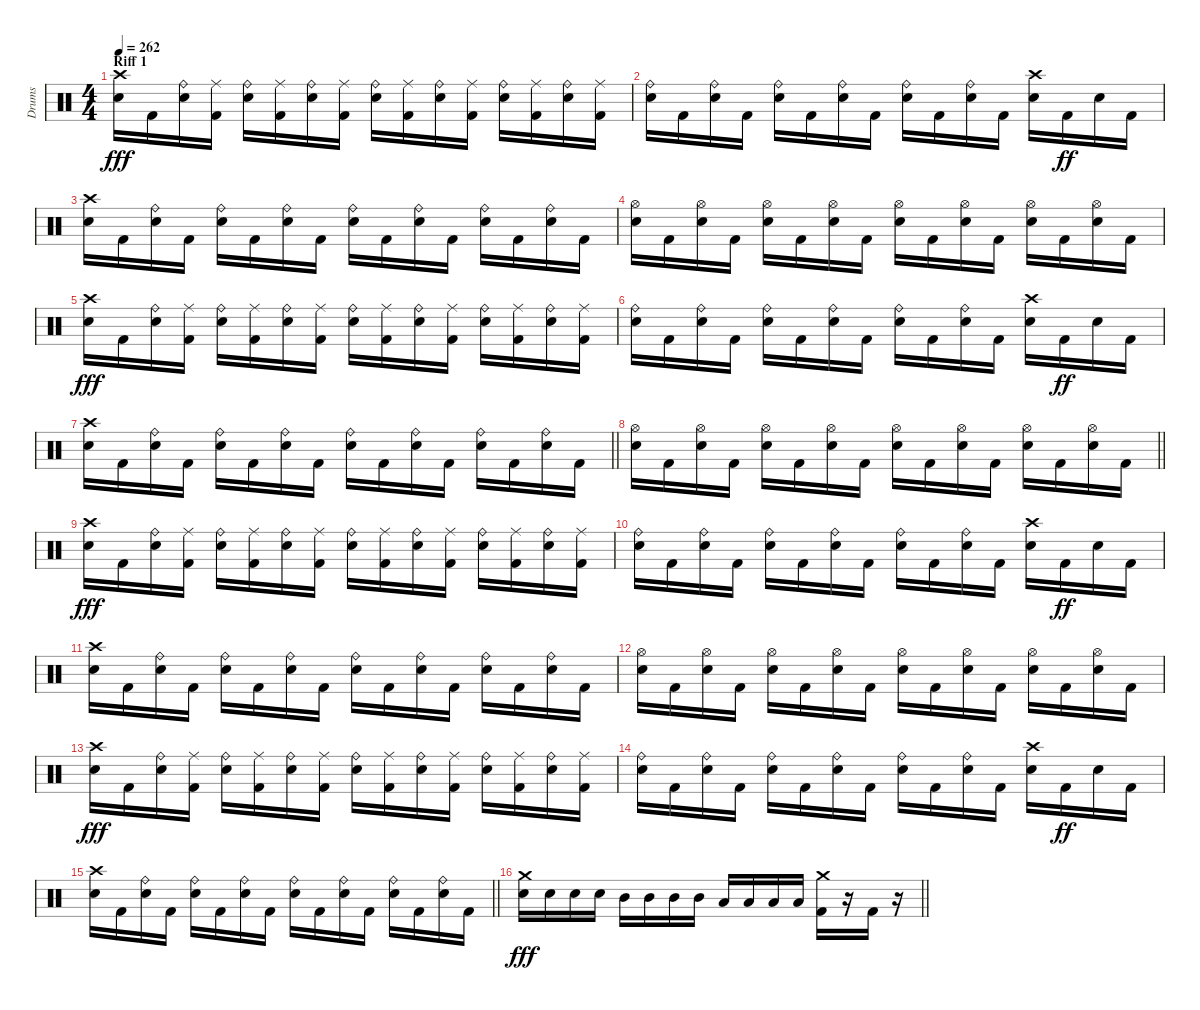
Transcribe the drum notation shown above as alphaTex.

\track ("Drums" "Drums") {instrument percussion}
\staff {score}
\articulation defaults
\ts (4 4)
\section ("" "Riff 1")
\tempo 262
\clef neutral
\ks c
("Crash high (hit)" "Snare (hit) 2").16{dy fff} "Kick (hit) 2".16 ("Snare (hit) 2" "Ride (bell)").16 ("Kick (hit) 2" "Ride (middle)").16 ("Snare (hit) 2" "Ride (bell)").16 ("Kick (hit) 2" "Ride (middle)").16 ("Snare (hit) 2" "Ride (bell)").16 ("Kick (hit) 2" "Ride (middle)").16 ("Snare (hit) 2" "Ride (bell)").16 ("Kick (hit) 2" "Ride (middle)").16 ("Snare (hit) 2" "Ride (bell)").16 ("Kick (hit) 2" "Ride (middle)").16 ("Snare (hit) 2" "Ride (bell)").16 ("Kick (hit) 2" "Ride (middle)").16 ("Snare (hit) 2" "Ride (bell)").16 ("Kick (hit) 2" "Ride (middle)").16 |
("Snare (hit) 2" "Ride (bell)").16 "Kick (hit) 2".16 ("Snare (hit) 2" "Ride (bell)").16 "Kick (hit) 2".16 ("Snare (hit) 2" "Ride (bell)").16 "Kick (hit) 2".16 ("Snare (hit) 2" "Ride (bell)").16 "Kick (hit) 2".16 ("Snare (hit) 2" "Ride (bell)").16 "Kick (hit) 2".16 ("Snare (hit) 2" "Ride (bell)").16 "Kick (hit) 2".16 ("Crash high (hit)" "Snare (hit) 2").16 "Kick (hit) 2".16{dy ff} "Snare (hit) 2".16 "Kick (hit) 2".16 |
("Crash high (hit)" "Snare (hit) 2").16 "Kick (hit) 2".16 ("Snare (hit) 2" "Ride (bell)").16 "Kick (hit) 2".16 ("Snare (hit) 2" "Ride (bell)").16 "Kick (hit) 2".16 ("Snare (hit) 2" "Ride (bell)").16 "Kick (hit) 2".16 ("Snare (hit) 2" "Ride (bell)").16 "Kick (hit) 2".16 ("Snare (hit) 2" "Ride (bell)").16 "Kick (hit) 2".16 ("Snare (hit) 2" "Ride (bell)").16 "Kick (hit) 2".16 ("Snare (hit) 2" "Ride (bell)").16 "Kick (hit) 2".16 |
("Hi-Hat (open)" "Snare (hit) 2").16 "Kick (hit) 2".16 ("Hi-Hat (open)" "Snare (hit) 2").16 "Kick (hit) 2".16 ("Hi-Hat (open)" "Snare (hit) 2").16 "Kick (hit) 2".16 ("Hi-Hat (open)" "Snare (hit) 2").16 "Kick (hit) 2".16 ("Hi-Hat (open)" "Snare (hit) 2").16 "Kick (hit) 2".16 ("Hi-Hat (open)" "Snare (hit) 2").16 "Kick (hit) 2".16 ("Hi-Hat (open)" "Snare (hit) 2").16 "Kick (hit) 2".16 ("Hi-Hat (open)" "Snare (hit) 2").16 "Kick (hit) 2".16 |
("Crash high (hit)" "Snare (hit) 2").16{dy fff} "Kick (hit) 2".16 ("Snare (hit) 2" "Ride (bell)").16 ("Kick (hit) 2" "Ride (middle)").16 ("Snare (hit) 2" "Ride (bell)").16 ("Kick (hit) 2" "Ride (middle)").16 ("Snare (hit) 2" "Ride (bell)").16 ("Kick (hit) 2" "Ride (middle)").16 ("Snare (hit) 2" "Ride (bell)").16 ("Kick (hit) 2" "Ride (middle)").16 ("Snare (hit) 2" "Ride (bell)").16 ("Kick (hit) 2" "Ride (middle)").16 ("Snare (hit) 2" "Ride (bell)").16 ("Kick (hit) 2" "Ride (middle)").16 ("Snare (hit) 2" "Ride (bell)").16 ("Kick (hit) 2" "Ride (middle)").16 |
("Snare (hit) 2" "Ride (bell)").16 "Kick (hit) 2".16 ("Snare (hit) 2" "Ride (bell)").16 "Kick (hit) 2".16 ("Snare (hit) 2" "Ride (bell)").16 "Kick (hit) 2".16 ("Snare (hit) 2" "Ride (bell)").16 "Kick (hit) 2".16 ("Snare (hit) 2" "Ride (bell)").16 "Kick (hit) 2".16 ("Snare (hit) 2" "Ride (bell)").16 "Kick (hit) 2".16 ("Crash high (hit)" "Snare (hit) 2").16 "Kick (hit) 2".16{dy ff} "Snare (hit) 2".16 "Kick (hit) 2".16 |
\barLineRight lightlight
("Crash high (hit)" "Snare (hit) 2").16 "Kick (hit) 2".16 ("Snare (hit) 2" "Ride (bell)").16 "Kick (hit) 2".16 ("Snare (hit) 2" "Ride (bell)").16 "Kick (hit) 2".16 ("Snare (hit) 2" "Ride (bell)").16 "Kick (hit) 2".16 ("Snare (hit) 2" "Ride (bell)").16 "Kick (hit) 2".16 ("Snare (hit) 2" "Ride (bell)").16 "Kick (hit) 2".16 ("Snare (hit) 2" "Ride (bell)").16 "Kick (hit) 2".16 ("Snare (hit) 2" "Ride (bell)").16 "Kick (hit) 2".16 |
\barLineRight lightlight
("Hi-Hat (open)" "Snare (hit) 2").16 "Kick (hit) 2".16 ("Hi-Hat (open)" "Snare (hit) 2").16 "Kick (hit) 2".16 ("Hi-Hat (open)" "Snare (hit) 2").16 "Kick (hit) 2".16 ("Hi-Hat (open)" "Snare (hit) 2").16 "Kick (hit) 2".16 ("Hi-Hat (open)" "Snare (hit) 2").16 "Kick (hit) 2".16 ("Hi-Hat (open)" "Snare (hit) 2").16 "Kick (hit) 2".16 ("Hi-Hat (open)" "Snare (hit) 2").16 "Kick (hit) 2".16 ("Hi-Hat (open)" "Snare (hit) 2").16 "Kick (hit) 2".16 |
("Crash high (hit)" "Snare (hit) 2").16{dy fff} "Kick (hit) 2".16 ("Snare (hit) 2" "Ride (bell)").16 ("Kick (hit) 2" "Ride (middle)").16 ("Snare (hit) 2" "Ride (bell)").16 ("Kick (hit) 2" "Ride (middle)").16 ("Snare (hit) 2" "Ride (bell)").16 ("Kick (hit) 2" "Ride (middle)").16 ("Snare (hit) 2" "Ride (bell)").16 ("Kick (hit) 2" "Ride (middle)").16 ("Snare (hit) 2" "Ride (bell)").16 ("Kick (hit) 2" "Ride (middle)").16 ("Snare (hit) 2" "Ride (bell)").16 ("Kick (hit) 2" "Ride (middle)").16 ("Snare (hit) 2" "Ride (bell)").16 ("Kick (hit) 2" "Ride (middle)").16 |
("Snare (hit) 2" "Ride (bell)").16 "Kick (hit) 2".16 ("Snare (hit) 2" "Ride (bell)").16 "Kick (hit) 2".16 ("Snare (hit) 2" "Ride (bell)").16 "Kick (hit) 2".16 ("Snare (hit) 2" "Ride (bell)").16 "Kick (hit) 2".16 ("Snare (hit) 2" "Ride (bell)").16 "Kick (hit) 2".16 ("Snare (hit) 2" "Ride (bell)").16 "Kick (hit) 2".16 ("Crash high (hit)" "Snare (hit) 2").16 "Kick (hit) 2".16{dy ff} "Snare (hit) 2".16 "Kick (hit) 2".16 |
("Crash high (hit)" "Snare (hit) 2").16 "Kick (hit) 2".16 ("Snare (hit) 2" "Ride (bell)").16 "Kick (hit) 2".16 ("Snare (hit) 2" "Ride (bell)").16 "Kick (hit) 2".16 ("Snare (hit) 2" "Ride (bell)").16 "Kick (hit) 2".16 ("Snare (hit) 2" "Ride (bell)").16 "Kick (hit) 2".16 ("Snare (hit) 2" "Ride (bell)").16 "Kick (hit) 2".16 ("Snare (hit) 2" "Ride (bell)").16 "Kick (hit) 2".16 ("Snare (hit) 2" "Ride (bell)").16 "Kick (hit) 2".16 |
("Hi-Hat (open)" "Snare (hit) 2").16 "Kick (hit) 2".16 ("Hi-Hat (open)" "Snare (hit) 2").16 "Kick (hit) 2".16 ("Hi-Hat (open)" "Snare (hit) 2").16 "Kick (hit) 2".16 ("Hi-Hat (open)" "Snare (hit) 2").16 "Kick (hit) 2".16 ("Hi-Hat (open)" "Snare (hit) 2").16 "Kick (hit) 2".16 ("Hi-Hat (open)" "Snare (hit) 2").16 "Kick (hit) 2".16 ("Hi-Hat (open)" "Snare (hit) 2").16 "Kick (hit) 2".16 ("Hi-Hat (open)" "Snare (hit) 2").16 "Kick (hit) 2".16 |
("Crash high (hit)" "Snare (hit) 2").16{dy fff} "Kick (hit) 2".16 ("Snare (hit) 2" "Ride (bell)").16 ("Kick (hit) 2" "Ride (middle)").16 ("Snare (hit) 2" "Ride (bell)").16 ("Kick (hit) 2" "Ride (middle)").16 ("Snare (hit) 2" "Ride (bell)").16 ("Kick (hit) 2" "Ride (middle)").16 ("Snare (hit) 2" "Ride (bell)").16 ("Kick (hit) 2" "Ride (middle)").16 ("Snare (hit) 2" "Ride (bell)").16 ("Kick (hit) 2" "Ride (middle)").16 ("Snare (hit) 2" "Ride (bell)").16 ("Kick (hit) 2" "Ride (middle)").16 ("Snare (hit) 2" "Ride (bell)").16 ("Kick (hit) 2" "Ride (middle)").16 |
("Snare (hit) 2" "Ride (bell)").16 "Kick (hit) 2".16 ("Snare (hit) 2" "Ride (bell)").16 "Kick (hit) 2".16 ("Snare (hit) 2" "Ride (bell)").16 "Kick (hit) 2".16 ("Snare (hit) 2" "Ride (bell)").16 "Kick (hit) 2".16 ("Snare (hit) 2" "Ride (bell)").16 "Kick (hit) 2".16 ("Snare (hit) 2" "Ride (bell)").16 "Kick (hit) 2".16 ("Crash high (hit)" "Snare (hit) 2").16 "Kick (hit) 2".16{dy ff} "Snare (hit) 2".16 "Kick (hit) 2".16 |
\barLineRight lightlight
("Crash high (hit)" "Snare (hit) 2").16 "Kick (hit) 2".16 ("Snare (hit) 2" "Ride (bell)").16 "Kick (hit) 2".16 ("Snare (hit) 2" "Ride (bell)").16 "Kick (hit) 2".16 ("Snare (hit) 2" "Ride (bell)").16 "Kick (hit) 2".16 ("Snare (hit) 2" "Ride (bell)").16 "Kick (hit) 2".16 ("Snare (hit) 2" "Ride (bell)").16 "Kick (hit) 2".16 ("Snare (hit) 2" "Ride (bell)").16 "Kick (hit) 2".16 ("Snare (hit) 2" "Ride (bell)").16 "Kick (hit) 2".16 |
\barLineRight lightlight
("Crash medium (hit)" "Snare (hit) 2").16{dy fff} "Snare (hit) 2".16 "Snare (hit) 2".16 "Snare (hit) 2".16 "Mid Tom (hit)".16 "Mid Tom (hit)".16 "Mid Tom (hit)".16 "Mid Tom (hit)".16 "Low Tom (hit)".16 "Low Tom (hit)".16 "Low Tom (hit)".16 "Low Tom (hit)".16 ("Crash medium (hit)" "Kick (hit) 2").16 r.16 "Kick (hit) 2".16 r.16
